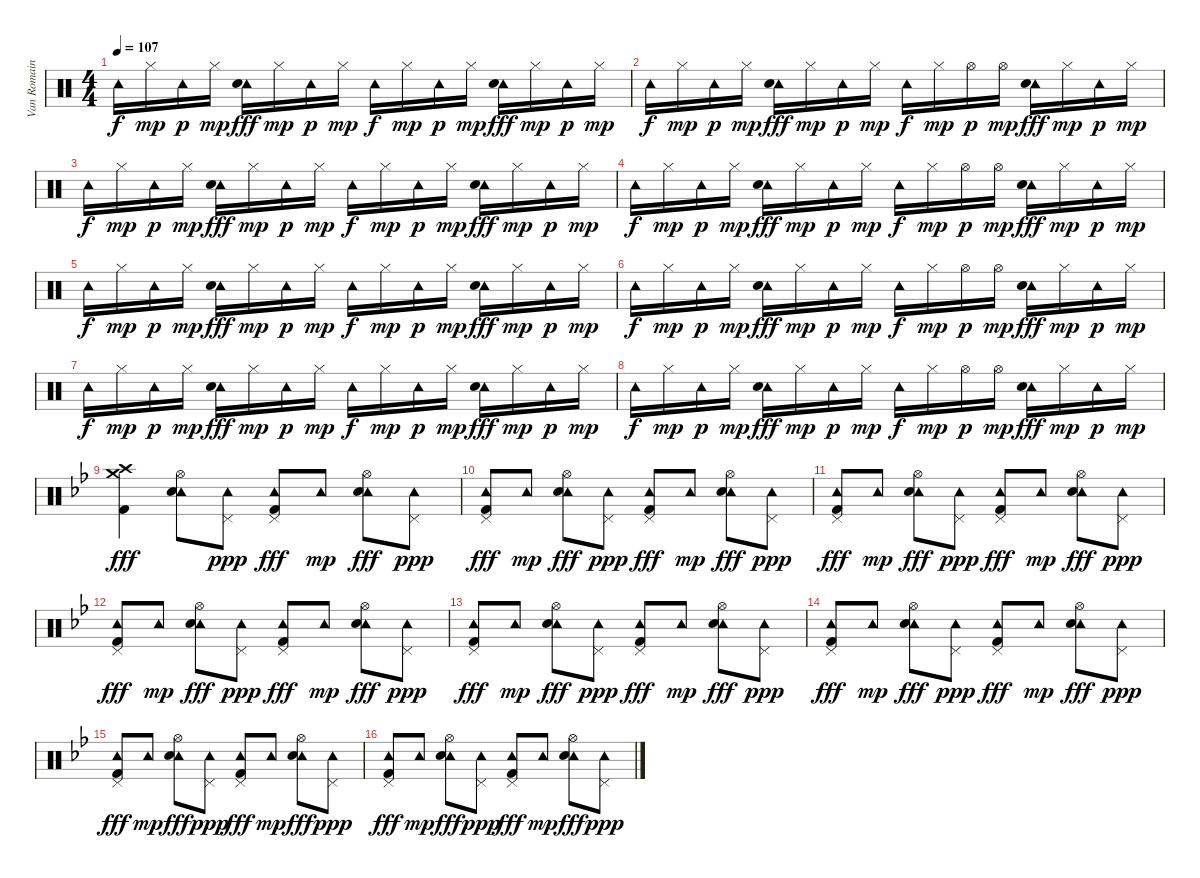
\track ("Van Romaine" "Van Romain") {instrument percussion}
\staff {score}
\articulation defaults
\ts (4 4)
\tempo 107
\clef neutral
\ks c "Tambourine (hit)".16{dy f} "Hi-Hat (closed)".16{dy mp} "Tambourine (hit)".16{dy p} "Hi-Hat (closed)".16{dy mp}
("Tambourine (hit)" "Electric Snare (hit)").16{dy fff} "Hi-Hat (closed)".16{dy mp} "Tambourine (hit)".16{dy p} "Hi-Hat (closed)".16{dy mp} "Tambourine (hit)".16{dy f} "Hi-Hat (closed)".16{dy mp} "Tambourine (hit)".16{dy p} "Hi-Hat (closed)".16{dy mp} ("Tambourine (hit)" "Electric Snare (hit)").16{dy fff} "Hi-Hat (closed)".16{dy mp} "Tambourine (hit)".16{dy p} "Hi-Hat (closed)".16{dy mp} |
"Tambourine (hit)".16{dy f} "Hi-Hat (closed)".16{dy mp} "Tambourine (hit)".16{dy p} "Hi-Hat (closed)".16{dy mp} ("Tambourine (hit)" "Electric Snare (hit)").16{dy fff} "Hi-Hat (closed)".16{dy mp} "Tambourine (hit)".16{dy p} "Hi-Hat (closed)".16{dy mp} "Tambourine (hit)".16{dy f} "Hi-Hat (closed)".16{dy mp} "Hi-Hat (open)".16{dy p} "Hi-Hat (open)".16{dy mp} ("Tambourine (hit)" "Electric Snare (hit)").16{dy fff} "Hi-Hat (closed)".16{dy mp} "Tambourine (hit)".16{dy p} "Hi-Hat (closed)".16{dy mp} |
"Tambourine (hit)".16{dy f} "Hi-Hat (closed)".16{dy mp} "Tambourine (hit)".16{dy p} "Hi-Hat (closed)".16{dy mp} ("Tambourine (hit)" "Electric Snare (hit)").16{dy fff} "Hi-Hat (closed)".16{dy mp} "Tambourine (hit)".16{dy p} "Hi-Hat (closed)".16{dy mp} "Tambourine (hit)".16{dy f} "Hi-Hat (closed)".16{dy mp} "Tambourine (hit)".16{dy p} "Hi-Hat (closed)".16{dy mp} ("Tambourine (hit)" "Electric Snare (hit)").16{dy fff} "Hi-Hat (closed)".16{dy mp} "Tambourine (hit)".16{dy p} "Hi-Hat (closed)".16{dy mp} |
"Tambourine (hit)".16{dy f} "Hi-Hat (closed)".16{dy mp} "Tambourine (hit)".16{dy p} "Hi-Hat (closed)".16{dy mp} ("Tambourine (hit)" "Electric Snare (hit)").16{dy fff} "Hi-Hat (closed)".16{dy mp} "Tambourine (hit)".16{dy p} "Hi-Hat (closed)".16{dy mp} "Tambourine (hit)".16{dy f} "Hi-Hat (closed)".16{dy mp} "Hi-Hat (open)".16{dy p} "Hi-Hat (open)".16{dy mp} ("Tambourine (hit)" "Electric Snare (hit)").16{dy fff} "Hi-Hat (closed)".16{dy mp} "Tambourine (hit)".16{dy p} "Hi-Hat (closed)".16{dy mp} |
"Tambourine (hit)".16{dy f} "Hi-Hat (closed)".16{dy mp} "Tambourine (hit)".16{dy p} "Hi-Hat (closed)".16{dy mp} ("Tambourine (hit)" "Electric Snare (hit)").16{dy fff} "Hi-Hat (closed)".16{dy mp} "Tambourine (hit)".16{dy p} "Hi-Hat (closed)".16{dy mp} "Tambourine (hit)".16{dy f} "Hi-Hat (closed)".16{dy mp} "Tambourine (hit)".16{dy p} "Hi-Hat (closed)".16{dy mp} ("Tambourine (hit)" "Electric Snare (hit)").16{dy fff} "Hi-Hat (closed)".16{dy mp} "Tambourine (hit)".16{dy p} "Hi-Hat (closed)".16{dy mp} |
"Tambourine (hit)".16{dy f} "Hi-Hat (closed)".16{dy mp} "Tambourine (hit)".16{dy p} "Hi-Hat (closed)".16{dy mp} ("Tambourine (hit)" "Electric Snare (hit)").16{dy fff} "Hi-Hat (closed)".16{dy mp} "Tambourine (hit)".16{dy p} "Hi-Hat (closed)".16{dy mp} "Tambourine (hit)".16{dy f} "Hi-Hat (closed)".16{dy mp} "Hi-Hat (open)".16{dy p} "Hi-Hat (open)".16{dy mp} ("Tambourine (hit)" "Electric Snare (hit)").16{dy fff} "Hi-Hat (closed)".16{dy mp} "Tambourine (hit)".16{dy p} "Hi-Hat (closed)".16{dy mp} |
"Tambourine (hit)".16{dy f} "Hi-Hat (closed)".16{dy mp} "Tambourine (hit)".16{dy p} "Hi-Hat (closed)".16{dy mp} ("Tambourine (hit)" "Electric Snare (hit)").16{dy fff} "Hi-Hat (closed)".16{dy mp} "Tambourine (hit)".16{dy p} "Hi-Hat (closed)".16{dy mp} "Tambourine (hit)".16{dy f} "Hi-Hat (closed)".16{dy mp} "Tambourine (hit)".16{dy p} "Hi-Hat (closed)".16{dy mp} ("Tambourine (hit)" "Electric Snare (hit)").16{dy fff} "Hi-Hat (closed)".16{dy mp} "Tambourine (hit)".16{dy p} "Hi-Hat (closed)".16{dy mp} |
"Tambourine (hit)".16{dy f} "Hi-Hat (closed)".16{dy mp} "Tambourine (hit)".16{dy p} "Hi-Hat (closed)".16{dy mp} ("Tambourine (hit)" "Electric Snare (hit)").16{dy fff} "Hi-Hat (closed)".16{dy mp} "Tambourine (hit)".16{dy p} "Hi-Hat (closed)".16{dy mp} "Tambourine (hit)".16{dy f} "Hi-Hat (closed)".16{dy mp} "Hi-Hat (open)".16{dy p} "Hi-Hat (open)".16{dy mp} ("Tambourine (hit)" "Electric Snare (hit)").16{dy fff} "Hi-Hat (closed)".16{dy mp} "Tambourine (hit)".16{dy p} "Hi-Hat (closed)".16{dy mp} |
\ks bb
("Crash high (hit)" "Crash medium (hit)" "Kick (hit) 2").4{dy fff} ("Tambourine (hit)" "Hi-Hat (open)" "Electric Snare (hit)").8 ("Tambourine (hit)" "Pedal Hi-Hat (hit)").8{dy ppp} ("Tambourine (hit)" "Pedal Hi-Hat (hit)" "Kick (hit) 2").8{dy fff} "Tambourine (hit)".8{dy mp} ("Tambourine (hit)" "Hi-Hat (open)" "Electric Snare (hit)").8{dy fff} ("Tambourine (hit)" "Pedal Hi-Hat (hit)").8{dy ppp} |
("Tambourine (hit)" "Pedal Hi-Hat (hit)" "Kick (hit) 2").8{dy fff} "Tambourine (hit)".8{dy mp} ("Tambourine (hit)" "Hi-Hat (open)" "Electric Snare (hit)").8{dy fff} ("Tambourine (hit)" "Pedal Hi-Hat (hit)").8{dy ppp} ("Tambourine (hit)" "Pedal Hi-Hat (hit)" "Kick (hit) 2").8{dy fff} "Tambourine (hit)".8{dy mp} ("Tambourine (hit)" "Hi-Hat (open)" "Electric Snare (hit)").8{dy fff} ("Tambourine (hit)" "Pedal Hi-Hat (hit)").8{dy ppp} |
("Tambourine (hit)" "Pedal Hi-Hat (hit)" "Kick (hit) 2").8{dy fff} "Tambourine (hit)".8{dy mp} ("Tambourine (hit)" "Hi-Hat (open)" "Electric Snare (hit)").8{dy fff} ("Tambourine (hit)" "Pedal Hi-Hat (hit)").8{dy ppp} ("Tambourine (hit)" "Pedal Hi-Hat (hit)" "Kick (hit) 2").8{dy fff} "Tambourine (hit)".8{dy mp} ("Tambourine (hit)" "Hi-Hat (open)" "Electric Snare (hit)").8{dy fff} ("Tambourine (hit)" "Pedal Hi-Hat (hit)").8{dy ppp} |
("Tambourine (hit)" "Pedal Hi-Hat (hit)" "Kick (hit) 2").8{dy fff} "Tambourine (hit)".8{dy mp} ("Tambourine (hit)" "Hi-Hat (open)" "Electric Snare (hit)").8{dy fff} ("Tambourine (hit)" "Pedal Hi-Hat (hit)").8{dy ppp} ("Tambourine (hit)" "Pedal Hi-Hat (hit)" "Kick (hit) 2").8{dy fff} "Tambourine (hit)".8{dy mp} ("Tambourine (hit)" "Hi-Hat (open)" "Electric Snare (hit)").8{dy fff} ("Tambourine (hit)" "Pedal Hi-Hat (hit)").8{dy ppp} |
("Tambourine (hit)" "Pedal Hi-Hat (hit)" "Kick (hit) 2").8{dy fff} "Tambourine (hit)".8{dy mp} ("Tambourine (hit)" "Hi-Hat (open)" "Electric Snare (hit)").8{dy fff} ("Tambourine (hit)" "Pedal Hi-Hat (hit)").8{dy ppp} ("Tambourine (hit)" "Pedal Hi-Hat (hit)" "Kick (hit) 2").8{dy fff} "Tambourine (hit)".8{dy mp} ("Tambourine (hit)" "Hi-Hat (open)" "Electric Snare (hit)").8{dy fff} ("Tambourine (hit)" "Pedal Hi-Hat (hit)").8{dy ppp} |
("Tambourine (hit)" "Pedal Hi-Hat (hit)" "Kick (hit) 2").8{dy fff} "Tambourine (hit)".8{dy mp} ("Tambourine (hit)" "Hi-Hat (open)" "Electric Snare (hit)").8{dy fff} ("Tambourine (hit)" "Pedal Hi-Hat (hit)").8{dy ppp} ("Tambourine (hit)" "Pedal Hi-Hat (hit)" "Kick (hit) 2").8{dy fff} "Tambourine (hit)".8{dy mp} ("Tambourine (hit)" "Hi-Hat (open)" "Electric Snare (hit)").8{dy fff} ("Tambourine (hit)" "Pedal Hi-Hat (hit)").8{dy ppp} |
("Tambourine (hit)" "Pedal Hi-Hat (hit)" "Kick (hit) 2").8{dy fff} "Tambourine (hit)".8{dy mp} ("Tambourine (hit)" "Hi-Hat (open)" "Electric Snare (hit)").8{dy fff} ("Tambourine (hit)" "Pedal Hi-Hat (hit)").8{dy ppp} ("Tambourine (hit)" "Pedal Hi-Hat (hit)" "Kick (hit) 2").8{dy fff} "Tambourine (hit)".8{dy mp} ("Tambourine (hit)" "Hi-Hat (open)" "Electric Snare (hit)").8{dy fff} ("Tambourine (hit)" "Pedal Hi-Hat (hit)").8{dy ppp} |
("Tambourine (hit)" "Pedal Hi-Hat (hit)" "Kick (hit) 2").8{dy fff} "Tambourine (hit)".8{dy mp} ("Tambourine (hit)" "Hi-Hat (open)" "Electric Snare (hit)").8{dy fff} ("Tambourine (hit)" "Pedal Hi-Hat (hit)").8{dy ppp} ("Tambourine (hit)" "Pedal Hi-Hat (hit)" "Kick (hit) 2").8{dy fff} "Tambourine (hit)".8{dy mp} ("Tambourine (hit)" "Hi-Hat (open)" "Electric Snare (hit)").8{dy fff} ("Tambourine (hit)" "Pedal Hi-Hat (hit)").8{dy ppp}
